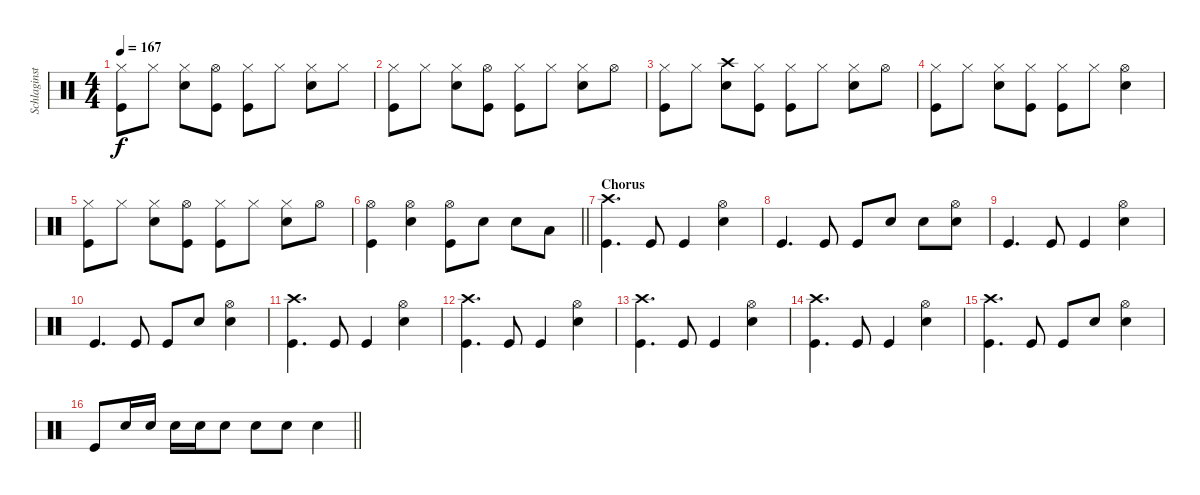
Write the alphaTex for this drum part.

\track ("Schlaginstrumente - Auswahl" "Schlaginst") {instrument percussion}
\staff {score}
\articulation defaults
\ts (4 4)
\tempo 167
\clef neutral
\ks c
("Hi-Hat (closed)" "Kick (hit)").8{dy f} "Hi-Hat (closed)".8 ("Hi-Hat (closed)" "Snare (hit) 2").8 ("Hi-Hat (open)" "Kick (hit)").8 ("Hi-Hat (closed)" "Kick (hit)").8 "Hi-Hat (closed)".8 ("Hi-Hat (closed)" "Snare (hit) 2").8 "Hi-Hat (closed)".8 |
("Hi-Hat (closed)" "Kick (hit)").8 "Hi-Hat (closed)".8 ("Hi-Hat (closed)" "Snare (hit) 2").8 ("Hi-Hat (open)" "Kick (hit)").8 ("Hi-Hat (closed)" "Kick (hit)").8 "Hi-Hat (closed)".8 ("Hi-Hat (closed)" "Snare (hit) 2").8 "Hi-Hat (open)".8 |
("Hi-Hat (closed)" "Kick (hit)").8 "Hi-Hat (closed)".8 ("Crash high (hit)" "Snare (hit) 2").8 ("Hi-Hat (closed)" "Kick (hit)").8 ("Hi-Hat (closed)" "Kick (hit)").8 "Hi-Hat (closed)".8 ("Hi-Hat (closed)" "Snare (hit) 2").8 "Hi-Hat (open)".8 |
("Hi-Hat (closed)" "Kick (hit)").8 "Hi-Hat (closed)".8 ("Hi-Hat (closed)" "Snare (hit) 2").8 ("Hi-Hat (closed)" "Kick (hit)").8 ("Hi-Hat (closed)" "Kick (hit)").8 "Hi-Hat (closed)".8 ("Hi-Hat (open)" "Snare (hit) 2").4 |
("Hi-Hat (closed)" "Kick (hit)").8 "Hi-Hat (closed)".8 ("Hi-Hat (closed)" "Snare (hit) 2").8 ("Hi-Hat (open)" "Kick (hit)").8 ("Hi-Hat (closed)" "Kick (hit)").8 "Hi-Hat (closed)".8 ("Hi-Hat (closed)" "Snare (hit) 2").8 "Hi-Hat (open)".8 |
\barLineRight lightlight
("Hi-Hat (open)" "Kick (hit)").4 ("Hi-Hat (open)" "Snare (hit) 2").4 ("Hi-Hat (open)" "Kick (hit)").8 "Snare (hit) 2".8 "Snare (hit) 2".8 "Low Tom (hit)".8 |
\section ("" "Chorus")
("Crash high (hit)" "Kick (hit)").4{d} "Kick (hit)".8 "Kick (hit)".4 ("Hi-Hat (open)" "Snare (hit) 2").4 |
"Kick (hit)".4{d} "Kick (hit)".8 "Kick (hit)".8 "Snare (hit) 2".8 "Snare (hit) 2".8 ("Hi-Hat (open)" "Snare (hit) 2").8 |
"Kick (hit)".4{d} "Kick (hit)".8 "Kick (hit)".4 ("Hi-Hat (open)" "Snare (hit) 2").4 |
"Kick (hit)".4{d} "Kick (hit)".8 "Kick (hit)".8 "Snare (hit) 2".8 ("Hi-Hat (open)" "Snare (hit) 2").4 |
("Crash high (hit)" "Kick (hit)").4{d} "Kick (hit)".8 "Kick (hit)".4 ("Hi-Hat (open)" "Snare (hit) 2").4 |
("Crash high (hit)" "Kick (hit)").4{d} "Kick (hit)".8 "Kick (hit)".4 ("Hi-Hat (open)" "Snare (hit) 2").4 |
("Crash high (hit)" "Kick (hit)").4{d} "Kick (hit)".8 "Kick (hit)".4 ("Hi-Hat (open)" "Snare (hit) 2").4 |
("Crash high (hit)" "Kick (hit)").4{d} "Kick (hit)".8 "Kick (hit)".4 ("Hi-Hat (open)" "Snare (hit) 2").4 |
("Crash high (hit)" "Kick (hit)").4{d} "Kick (hit)".8 "Kick (hit)".8 "Snare (hit) 2".8 ("Hi-Hat (open)" "Snare (hit) 2").4 |
\barLineRight lightlight "Kick (hit)".8 "Snare (hit) 2".16 "Snare (hit) 2".16 "Snare (hit) 2".16 "Snare (hit) 2".16 "Snare (hit) 2".8 "Snare (hit) 2".8 "Snare (hit) 2".8 "Snare (hit) 2".4
